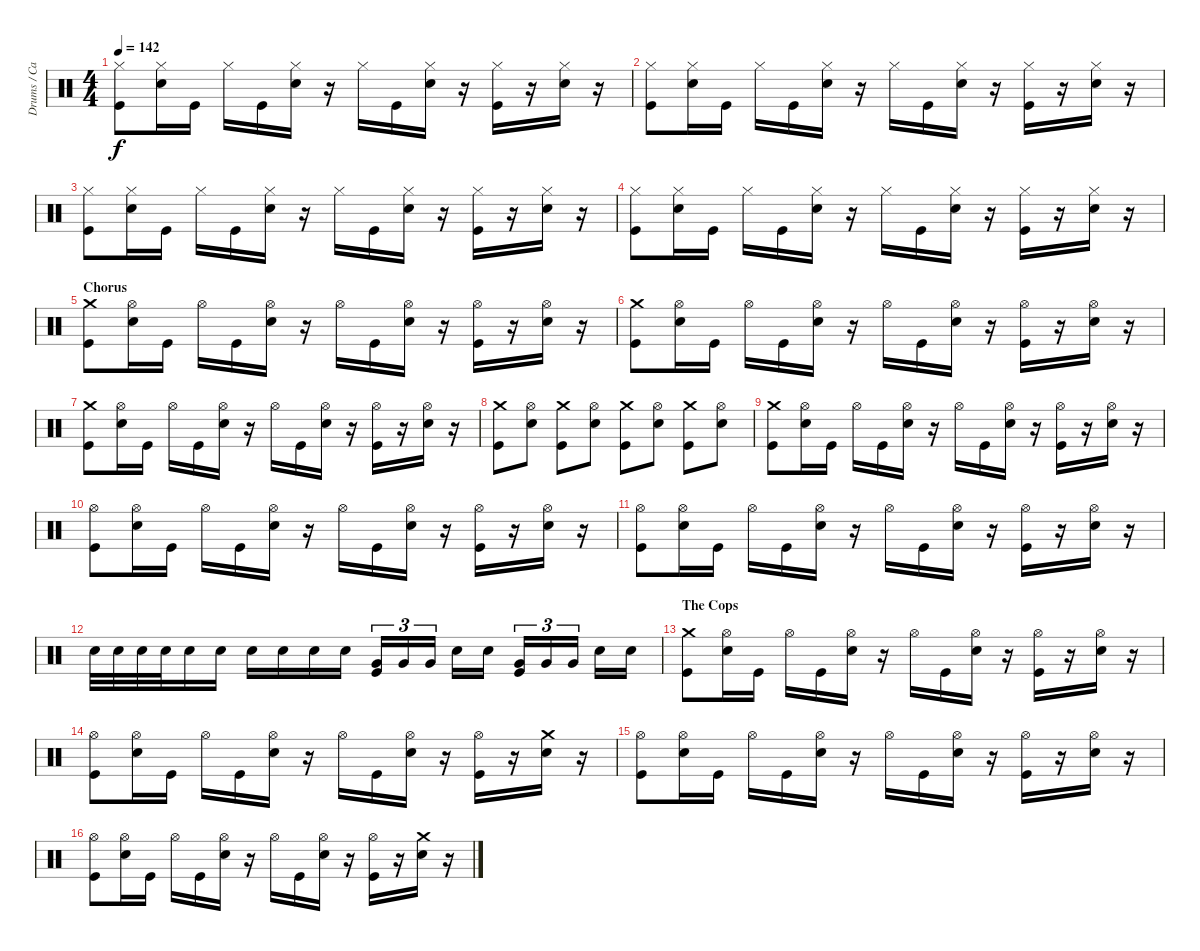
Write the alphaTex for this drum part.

\track ("Drums / Car " "Drums / Ca") {instrument percussion}
\staff {score}
\articulation defaults
\ts (4 4)
\tempo 142
\clef neutral
\ks c
("Hi-Hat (closed)" "Kick (hit)").8{dy f} ("Hi-Hat (closed)" "Electric Snare (hit)").16 "Kick (hit)".16 "Hi-Hat (closed)".16 "Kick (hit)".16 ("Hi-Hat (closed)" "Electric Snare (hit)").16 r.16 "Hi-Hat (closed)".16 "Kick (hit)".16 ("Hi-Hat (closed)" "Electric Snare (hit)").16 r.16 ("Hi-Hat (closed)" "Kick (hit)").16 r.16 ("Hi-Hat (closed)" "Electric Snare (hit)").16 r.16 |
("Hi-Hat (closed)" "Kick (hit)").8 ("Hi-Hat (closed)" "Electric Snare (hit)").16 "Kick (hit)".16 "Hi-Hat (closed)".16 "Kick (hit)".16 ("Hi-Hat (closed)" "Electric Snare (hit)").16 r.16 "Hi-Hat (closed)".16 "Kick (hit)".16 ("Hi-Hat (closed)" "Electric Snare (hit)").16 r.16 ("Hi-Hat (closed)" "Kick (hit)").16 r.16 ("Hi-Hat (closed)" "Electric Snare (hit)").16 r.16 |
("Hi-Hat (closed)" "Kick (hit)").8 ("Hi-Hat (closed)" "Electric Snare (hit)").16 "Kick (hit)".16 "Hi-Hat (closed)".16 "Kick (hit)".16 ("Hi-Hat (closed)" "Electric Snare (hit)").16 r.16 "Hi-Hat (closed)".16 "Kick (hit)".16 ("Hi-Hat (closed)" "Electric Snare (hit)").16 r.16 ("Hi-Hat (closed)" "Kick (hit)").16 r.16 ("Hi-Hat (closed)" "Electric Snare (hit)").16 r.16 |
("Hi-Hat (closed)" "Kick (hit)").8 ("Hi-Hat (closed)" "Electric Snare (hit)").16 "Kick (hit)".16 "Hi-Hat (closed)".16 "Kick (hit)".16 ("Hi-Hat (closed)" "Electric Snare (hit)").16 r.16 "Hi-Hat (closed)".16 "Kick (hit)".16 ("Hi-Hat (closed)" "Electric Snare (hit)").16 r.16 ("Hi-Hat (closed)" "Kick (hit)").16 r.16 ("Hi-Hat (closed)" "Electric Snare (hit)").16 r.16 |
\section ("" "Chorus")
("Crash medium (hit)" "Kick (hit)").8 ("Hi-Hat (open)" "Electric Snare (hit)").16 "Kick (hit)".16 "Hi-Hat (open)".16 "Kick (hit)".16 ("Hi-Hat (open)" "Electric Snare (hit)").16 r.16 "Hi-Hat (open)".16 "Kick (hit)".16 ("Hi-Hat (open)" "Electric Snare (hit)").16 r.16 ("Hi-Hat (open)" "Kick (hit)").16 r.16 ("Hi-Hat (open)" "Electric Snare (hit)").16 r.16 |
("Crash medium (hit)" "Kick (hit)").8 ("Hi-Hat (open)" "Electric Snare (hit)").16 "Kick (hit)".16 "Hi-Hat (open)".16 "Kick (hit)".16 ("Hi-Hat (open)" "Electric Snare (hit)").16 r.16 "Hi-Hat (open)".16 "Kick (hit)".16 ("Hi-Hat (open)" "Electric Snare (hit)").16 r.16 ("Hi-Hat (open)" "Kick (hit)").16 r.16 ("Hi-Hat (open)" "Electric Snare (hit)").16 r.16 |
("Crash medium (hit)" "Kick (hit)").8 ("Hi-Hat (open)" "Electric Snare (hit)").16 "Kick (hit)".16 "Hi-Hat (open)".16 "Kick (hit)".16 ("Hi-Hat (open)" "Electric Snare (hit)").16 r.16 "Hi-Hat (open)".16 "Kick (hit)".16 ("Hi-Hat (open)" "Electric Snare (hit)").16 r.16 ("Hi-Hat (open)" "Kick (hit)").16 r.16 ("Hi-Hat (open)" "Electric Snare (hit)").16 r.16 |
("Crash medium (hit)" "Kick (hit)").8 ("Hi-Hat (open)" "Electric Snare (hit)").8 ("Crash medium (hit)" "Kick (hit)").8 ("Hi-Hat (open)" "Electric Snare (hit)").8 ("Crash medium (hit)" "Kick (hit)").8 ("Hi-Hat (open)" "Electric Snare (hit)").8 ("Crash medium (hit)" "Kick (hit)").8 ("Hi-Hat (open)" "Electric Snare (hit)").8 |
("Crash medium (hit)" "Kick (hit)").8 ("Hi-Hat (open)" "Electric Snare (hit)").16 "Kick (hit)".16 "Hi-Hat (open)".16 "Kick (hit)".16 ("Hi-Hat (open)" "Electric Snare (hit)").16 r.16 "Hi-Hat (open)".16 "Kick (hit)".16 ("Hi-Hat (open)" "Electric Snare (hit)").16 r.16 ("Hi-Hat (open)" "Kick (hit)").16 r.16 ("Hi-Hat (open)" "Electric Snare (hit)").16 r.16 |
("Hi-Hat (open)" "Kick (hit)").8 ("Hi-Hat (open)" "Electric Snare (hit)").16 "Kick (hit)".16 "Hi-Hat (open)".16 "Kick (hit)".16 ("Hi-Hat (open)" "Electric Snare (hit)").16 r.16 "Hi-Hat (open)".16 "Kick (hit)".16 ("Hi-Hat (open)" "Electric Snare (hit)").16 r.16 ("Hi-Hat (open)" "Kick (hit)").16 r.16 ("Hi-Hat (open)" "Electric Snare (hit)").16 r.16 |
("Hi-Hat (open)" "Kick (hit)").8 ("Hi-Hat (open)" "Electric Snare (hit)").16 "Kick (hit)".16 "Hi-Hat (open)".16 "Kick (hit)".16 ("Hi-Hat (open)" "Electric Snare (hit)").16 r.16 "Hi-Hat (open)".16 "Kick (hit)".16 ("Hi-Hat (open)" "Electric Snare (hit)").16 r.16 ("Hi-Hat (open)" "Kick (hit)").16 r.16 ("Hi-Hat (open)" "Electric Snare (hit)").16 r.16 |
"Electric Snare (hit)".32 "Electric Snare (hit)".32 "Electric Snare (hit)".32 "Electric Snare (hit)".32 "Electric Snare (hit)".16 "Electric Snare (hit)".16 "Electric Snare (hit)".16 "Electric Snare (hit)".16 "Electric Snare (hit)".16 "Electric Snare (hit)".16 ("Very Low Tom (hit)" "Kick (hit)").16{tu (3 2)} "Very Low Tom (hit)".16{tu (3 2)} "Very Low Tom (hit)".16{tu (3 2)} "Electric Snare (hit)".16 "Electric Snare (hit)".16 ("Very Low Tom (hit)" "Kick (hit)").16{tu (3 2)} "Very Low Tom (hit)".16{tu (3 2)} "Very Low Tom (hit)".16{tu (3 2)} "Electric Snare (hit)".16 "Electric Snare (hit)".16 |
\section ("" "The Cops")
("Crash medium (hit)" "Kick (hit)").8 ("Hi-Hat (open)" "Electric Snare (hit)").16 "Kick (hit)".16 "Hi-Hat (open)".16 "Kick (hit)".16 ("Hi-Hat (open)" "Electric Snare (hit)").16 r.16 "Hi-Hat (open)".16 "Kick (hit)".16 ("Hi-Hat (open)" "Electric Snare (hit)").16 r.16 ("Hi-Hat (open)" "Kick (hit)").16 r.16 ("Hi-Hat (open)" "Electric Snare (hit)").16 r.16 |
("Hi-Hat (open)" "Kick (hit)").8 ("Hi-Hat (open)" "Electric Snare (hit)").16 "Kick (hit)".16 "Hi-Hat (open)".16 "Kick (hit)".16 ("Hi-Hat (open)" "Electric Snare (hit)").16 r.16 "Hi-Hat (open)".16 "Kick (hit)".16 ("Hi-Hat (open)" "Electric Snare (hit)").16 r.16 ("Hi-Hat (open)" "Kick (hit)").16 r.16 ("Crash medium (hit)" "Electric Snare (hit)").16 r.16 |
("Hi-Hat (open)" "Kick (hit)").8 ("Hi-Hat (open)" "Electric Snare (hit)").16 "Kick (hit)".16 "Hi-Hat (open)".16 "Kick (hit)".16 ("Hi-Hat (open)" "Electric Snare (hit)").16 r.16 "Hi-Hat (open)".16 "Kick (hit)".16 ("Hi-Hat (open)" "Electric Snare (hit)").16 r.16 ("Hi-Hat (open)" "Kick (hit)").16 r.16 ("Hi-Hat (open)" "Electric Snare (hit)").16 r.16 |
("Hi-Hat (open)" "Kick (hit)").8 ("Hi-Hat (open)" "Electric Snare (hit)").16 "Kick (hit)".16 "Hi-Hat (open)".16 "Kick (hit)".16 ("Hi-Hat (open)" "Electric Snare (hit)").16 r.16 "Hi-Hat (open)".16 "Kick (hit)".16 ("Hi-Hat (open)" "Electric Snare (hit)").16 r.16 ("Hi-Hat (open)" "Kick (hit)").16 r.16 ("Crash medium (hit)" "Electric Snare (hit)").16 r.16
